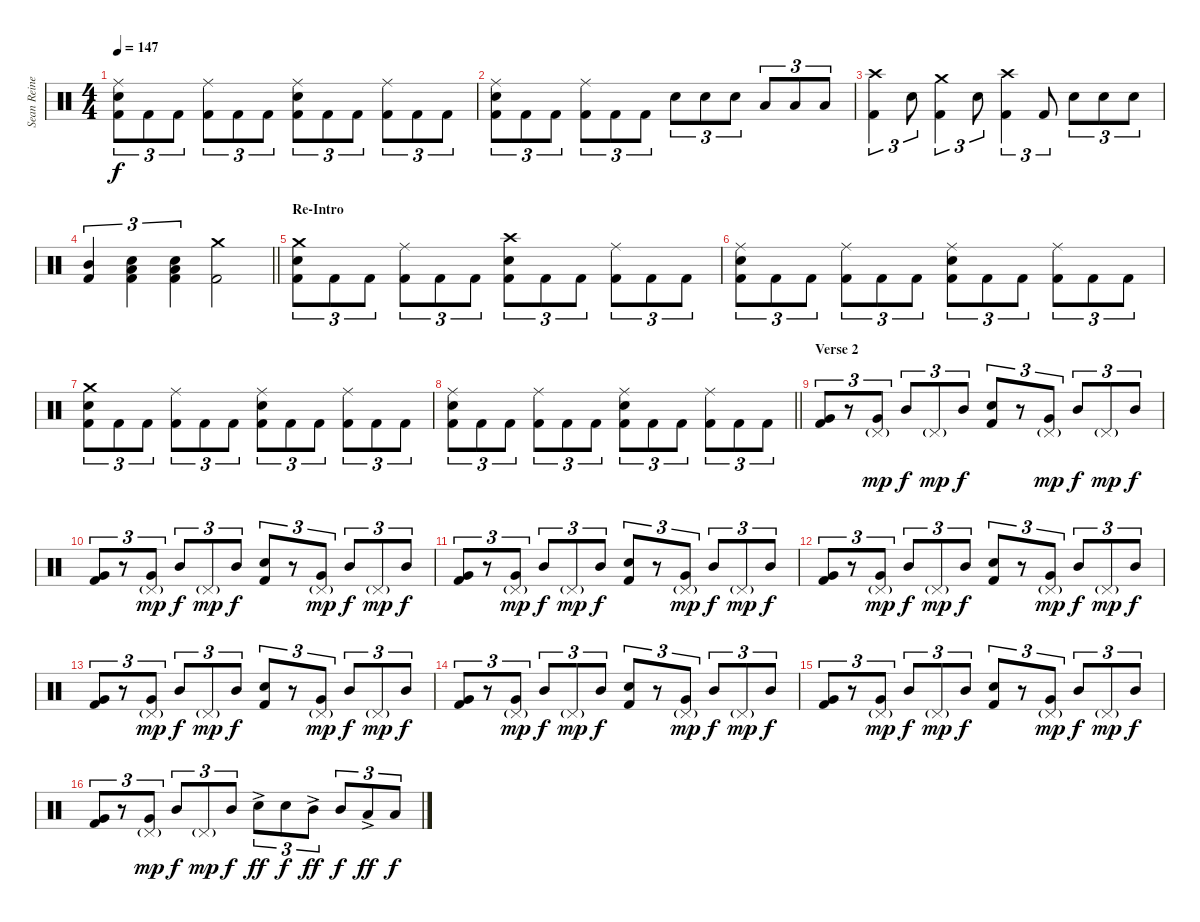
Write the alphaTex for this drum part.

\track ("Sean Reinert" "Sean Reine") {instrument percussion}
\staff {score}
\articulation defaults
\ts (4 4)
\tempo 147
\clef neutral
\ks c
("Ride (middle)" "Snare (hit) 2" "Kick (hit) 2").8{tu (3 2) dy f} "Kick (hit) 2".8{tu (3 2)} "Kick (hit) 2".8{tu (3 2)} ("Ride (middle)" "Kick (hit) 2").8{tu (3 2)} "Kick (hit) 2".8{tu (3 2)} "Kick (hit) 2".8{tu (3 2)} ("Ride (middle)" "Snare (hit) 2" "Kick (hit) 2").8{tu (3 2)} "Kick (hit) 2".8{tu (3 2)} "Kick (hit) 2".8{tu (3 2)} ("Ride (middle)" "Kick (hit) 2").8{tu (3 2)} "Kick (hit) 2".8{tu (3 2)} "Kick (hit) 2".8{tu (3 2)} |
("Ride (middle)" "Snare (hit) 2" "Kick (hit) 2").8{tu (3 2)} "Kick (hit) 2".8{tu (3 2)} "Kick (hit) 2".8{tu (3 2)} ("Ride (middle)" "Kick (hit) 2").8{tu (3 2)} "Kick (hit) 2".8{tu (3 2)} "Kick (hit) 2".8{tu (3 2)} "Snare (hit) 2".8{tu (3 2)} "Snare (hit) 2".8{tu (3 2)} "Snare (hit) 2".8{tu (3 2)} "Low Tom (hit)".8{tu (3 2)} "Low Tom (hit)".8{tu (3 2)} "Low Tom (hit)".8{tu (3 2)} |
("Crash high (hit)" "Kick (hit) 2").4{tu (3 2)} "Snare (hit) 2".8{tu (3 2)} ("Crash medium (hit)" "Kick (hit) 2").4{tu (3 2)} "Snare (hit) 2".8{tu (3 2)} ("Crash high (hit)" "Kick (hit) 2").4{tu (3 2)} "Kick (hit) 2".8{tu (3 2)} "Snare (hit) 2".8{tu (3 2)} "Snare (hit) 2".8{tu (3 2)} "Snare (hit) 2".8{tu (3 2)} |
\barLineRight lightlight
("Mid Tom (hit)" "Kick (hit) 2").4{tu (3 2)} ("Low Tom (hit)" "Snare (hit) 2" "Kick (hit) 2").4{tu (3 2)} ("Low Tom (hit)" "Snare (hit) 2" "Kick (hit) 2").4{tu (3 2)} ("Crash medium (hit)" "Kick (hit) 2").2 |
\section ("" "Re-Intro")
("Crash medium (hit)" "Snare (hit) 2" "Kick (hit) 2").8{tu (3 2)} "Kick (hit) 2".8{tu (3 2)} "Kick (hit) 2".8{tu (3 2)} ("Ride (middle)" "Kick (hit) 2").8{tu (3 2)} "Kick (hit) 2".8{tu (3 2)} "Kick (hit) 2".8{tu (3 2)} ("Crash high (hit)" "Snare (hit) 2" "Kick (hit) 2").8{tu (3 2)} "Kick (hit) 2".8{tu (3 2)} "Kick (hit) 2".8{tu (3 2)} ("Ride (middle)" "Kick (hit) 2").8{tu (3 2)} "Kick (hit) 2".8{tu (3 2)} "Kick (hit) 2".8{tu (3 2)} |
("Ride (middle)" "Snare (hit) 2" "Kick (hit) 2").8{tu (3 2)} "Kick (hit) 2".8{tu (3 2)} "Kick (hit) 2".8{tu (3 2)} ("Ride (middle)" "Kick (hit) 2").8{tu (3 2)} "Kick (hit) 2".8{tu (3 2)} "Kick (hit) 2".8{tu (3 2)} ("Ride (middle)" "Snare (hit) 2" "Kick (hit) 2").8{tu (3 2)} "Kick (hit) 2".8{tu (3 2)} "Kick (hit) 2".8{tu (3 2)} ("Ride (middle)" "Kick (hit) 2").8{tu (3 2)} "Kick (hit) 2".8{tu (3 2)} "Kick (hit) 2".8{tu (3 2)} |
("Crash medium (hit)" "Snare (hit) 2" "Kick (hit) 2").8{tu (3 2)} "Kick (hit) 2".8{tu (3 2)} "Kick (hit) 2".8{tu (3 2)} ("Ride (middle)" "Kick (hit) 2").8{tu (3 2)} "Kick (hit) 2".8{tu (3 2)} "Kick (hit) 2".8{tu (3 2)} ("Ride (middle)" "Snare (hit) 2" "Kick (hit) 2").8{tu (3 2)} "Kick (hit) 2".8{tu (3 2)} "Kick (hit) 2".8{tu (3 2)} ("Ride (middle)" "Kick (hit) 2").8{tu (3 2)} "Kick (hit) 2".8{tu (3 2)} "Kick (hit) 2".8{tu (3 2)} |
\barLineRight lightlight
("Ride (middle)" "Snare (hit) 2" "Kick (hit) 2").8{tu (3 2)} "Kick (hit) 2".8{tu (3 2)} "Kick (hit) 2".8{tu (3 2)} ("Ride (middle)" "Kick (hit) 2").8{tu (3 2)} "Kick (hit) 2".8{tu (3 2)} "Kick (hit) 2".8{tu (3 2)} ("Ride (middle)" "Snare (hit) 2" "Kick (hit) 2").8{tu (3 2)} "Kick (hit) 2".8{tu (3 2)} "Kick (hit) 2".8{tu (3 2)} ("Ride (middle)" "Kick (hit) 2").8{tu (3 2)} "Kick (hit) 2".8{tu (3 2)} "Kick (hit) 2".8{tu (3 2)} |
\section ("" "Verse 2")
("Very Low Tom (hit)" "Kick (hit) 2").8{tu (3 2)} r.8{tu (3 2)} ("Pedal Hi-Hat (hit)"{g} "Very Low Tom (hit)").8{tu (3 2) dy mp} "Mid Tom (hit)".8{tu (3 2) dy f} "Pedal Hi-Hat (hit)"{g}.8{tu (3 2) dy mp} "Mid Tom (hit)".8{tu (3 2) dy f} ("Snare (hit) 2" "Kick (hit) 2").8{tu (3 2)} r.8{tu (3 2)} ("Pedal Hi-Hat (hit)"{g} "Very Low Tom (hit)").8{tu (3 2) dy mp} "Mid Tom (hit)".8{tu (3 2) dy f} "Pedal Hi-Hat (hit)"{g}.8{tu (3 2) dy mp} "Mid Tom (hit)".8{tu (3 2) dy f} |
("Very Low Tom (hit)" "Kick (hit) 2").8{tu (3 2)} r.8{tu (3 2)} ("Pedal Hi-Hat (hit)"{g} "Very Low Tom (hit)").8{tu (3 2) dy mp} "Mid Tom (hit)".8{tu (3 2) dy f} "Pedal Hi-Hat (hit)"{g}.8{tu (3 2) dy mp} "Mid Tom (hit)".8{tu (3 2) dy f} ("Snare (hit) 2" "Kick (hit) 2").8{tu (3 2)} r.8{tu (3 2)} ("Pedal Hi-Hat (hit)"{g} "Very Low Tom (hit)").8{tu (3 2) dy mp} "Mid Tom (hit)".8{tu (3 2) dy f} "Pedal Hi-Hat (hit)"{g}.8{tu (3 2) dy mp} "Mid Tom (hit)".8{tu (3 2) dy f} |
("Very Low Tom (hit)" "Kick (hit) 2").8{tu (3 2)} r.8{tu (3 2)} ("Pedal Hi-Hat (hit)"{g} "Very Low Tom (hit)").8{tu (3 2) dy mp} "Mid Tom (hit)".8{tu (3 2) dy f} "Pedal Hi-Hat (hit)"{g}.8{tu (3 2) dy mp} "Mid Tom (hit)".8{tu (3 2) dy f} ("Snare (hit) 2" "Kick (hit) 2").8{tu (3 2)} r.8{tu (3 2)} ("Pedal Hi-Hat (hit)"{g} "Very Low Tom (hit)").8{tu (3 2) dy mp} "Mid Tom (hit)".8{tu (3 2) dy f} "Pedal Hi-Hat (hit)"{g}.8{tu (3 2) dy mp} "Mid Tom (hit)".8{tu (3 2) dy f} |
("Very Low Tom (hit)" "Kick (hit) 2").8{tu (3 2)} r.8{tu (3 2)} ("Pedal Hi-Hat (hit)"{g} "Very Low Tom (hit)").8{tu (3 2) dy mp} "Mid Tom (hit)".8{tu (3 2) dy f} "Pedal Hi-Hat (hit)"{g}.8{tu (3 2) dy mp} "Mid Tom (hit)".8{tu (3 2) dy f} ("Snare (hit) 2" "Kick (hit) 2").8{tu (3 2)} r.8{tu (3 2)} ("Pedal Hi-Hat (hit)"{g} "Very Low Tom (hit)").8{tu (3 2) dy mp} "Mid Tom (hit)".8{tu (3 2) dy f} "Pedal Hi-Hat (hit)"{g}.8{tu (3 2) dy mp} "Mid Tom (hit)".8{tu (3 2) dy f} |
("Very Low Tom (hit)" "Kick (hit) 2").8{tu (3 2)} r.8{tu (3 2)} ("Pedal Hi-Hat (hit)"{g} "Very Low Tom (hit)").8{tu (3 2) dy mp} "Mid Tom (hit)".8{tu (3 2) dy f} "Pedal Hi-Hat (hit)"{g}.8{tu (3 2) dy mp} "Mid Tom (hit)".8{tu (3 2) dy f} ("Snare (hit) 2" "Kick (hit) 2").8{tu (3 2)} r.8{tu (3 2)} ("Pedal Hi-Hat (hit)"{g} "Very Low Tom (hit)").8{tu (3 2) dy mp} "Mid Tom (hit)".8{tu (3 2) dy f} "Pedal Hi-Hat (hit)"{g}.8{tu (3 2) dy mp} "Mid Tom (hit)".8{tu (3 2) dy f} |
("Very Low Tom (hit)" "Kick (hit) 2").8{tu (3 2)} r.8{tu (3 2)} ("Pedal Hi-Hat (hit)"{g} "Very Low Tom (hit)").8{tu (3 2) dy mp} "Mid Tom (hit)".8{tu (3 2) dy f} "Pedal Hi-Hat (hit)"{g}.8{tu (3 2) dy mp} "Mid Tom (hit)".8{tu (3 2) dy f} ("Snare (hit) 2" "Kick (hit) 2").8{tu (3 2)} r.8{tu (3 2)} ("Pedal Hi-Hat (hit)"{g} "Very Low Tom (hit)").8{tu (3 2) dy mp} "Mid Tom (hit)".8{tu (3 2) dy f} "Pedal Hi-Hat (hit)"{g}.8{tu (3 2) dy mp} "Mid Tom (hit)".8{tu (3 2) dy f} |
("Very Low Tom (hit)" "Kick (hit) 2").8{tu (3 2)} r.8{tu (3 2)} ("Pedal Hi-Hat (hit)"{g} "Very Low Tom (hit)").8{tu (3 2) dy mp} "Mid Tom (hit)".8{tu (3 2) dy f} "Pedal Hi-Hat (hit)"{g}.8{tu (3 2) dy mp} "Mid Tom (hit)".8{tu (3 2) dy f} ("Snare (hit) 2" "Kick (hit) 2").8{tu (3 2)} r.8{tu (3 2)} ("Pedal Hi-Hat (hit)"{g} "Very Low Tom (hit)").8{tu (3 2) dy mp} "Mid Tom (hit)".8{tu (3 2) dy f} "Pedal Hi-Hat (hit)"{g}.8{tu (3 2) dy mp} "Mid Tom (hit)".8{tu (3 2) dy f} |
("Very Low Tom (hit)" "Kick (hit) 2").8{tu (3 2)} r.8{tu (3 2)} ("Pedal Hi-Hat (hit)"{g} "Very Low Tom (hit)").8{tu (3 2) dy mp} "Mid Tom (hit)".8{tu (3 2) dy f} "Pedal Hi-Hat (hit)"{g}.8{tu (3 2) dy mp} "Mid Tom (hit)".8{tu (3 2) dy f} "Snare (hit) 2"{ac}.8{tu (3 2) dy ff} "Snare (hit) 2".8{tu (3 2) dy f} "Mid Tom (hit)"{ac}.8{tu (3 2) dy ff} "Mid Tom (hit)".8{tu (3 2) dy f} "Low Tom (hit)"{ac}.8{tu (3 2) dy ff} "Low Tom (hit)".8{tu (3 2) dy f}
